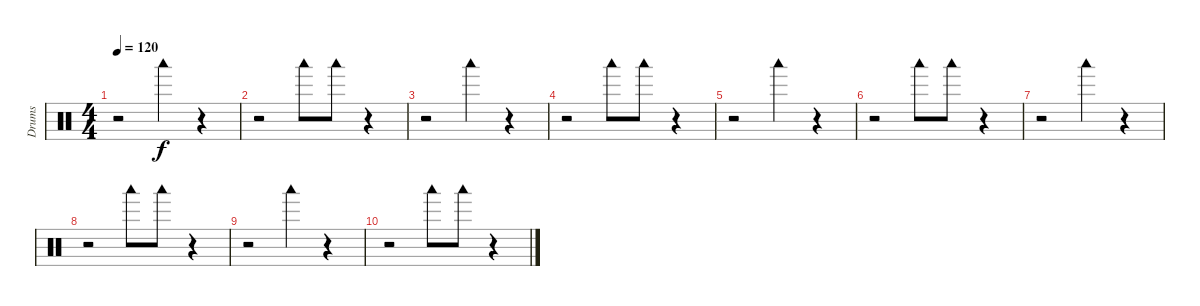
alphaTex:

\track ("Drums" "Drums") {instrument percussion}
\staff {score}
\articulation defaults
\ts (4 4)
\tempo 120
\clef neutral
\ks c
r.2{dy f} "Woodblock low (hit)".4 r.4 |
r.2 "Woodblock low (hit)".8 "Woodblock low (hit)".8 r.4 |
r.2 "Woodblock low (hit)".4 r.4 |
r.2 "Woodblock low (hit)".8 "Woodblock low (hit)".8 r.4 |
r.2 "Woodblock low (hit)".4 r.4 |
r.2 "Woodblock low (hit)".8 "Woodblock low (hit)".8 r.4 |
r.2 "Woodblock low (hit)".4 r.4 |
r.2 "Woodblock low (hit)".8 "Woodblock low (hit)".8 r.4 |
r.2 "Woodblock low (hit)".4 r.4 |
r.2 "Woodblock low (hit)".8 "Woodblock low (hit)".8 r.4
